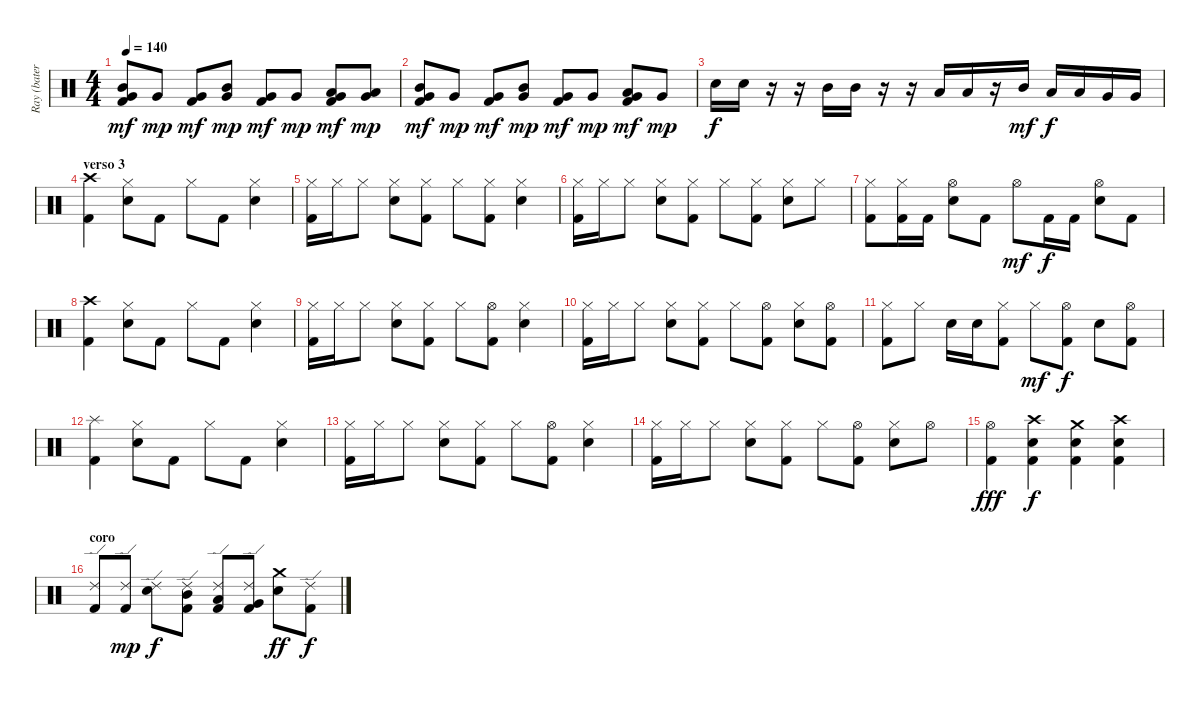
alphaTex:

\track ("Ray (batería)" "Ray (bater") {instrument percussion}
\staff {score}
\articulation defaults
\ts (4 4)
\tempo 140
\clef neutral
\ks c
("Mid Tom (hit)" "Very Low Tom (hit)" "Kick (hit) 2").8{dy mf} "Very Low Tom (hit)".8{dy mp} ("Very Low Tom (hit)" "Kick (hit) 2").8{dy mf} ("Mid Tom (hit)" "Very Low Tom (hit)").8{dy mp} ("Very Low Tom (hit)" "Kick (hit) 2").8{dy mf} "Very Low Tom (hit)".8{dy mp} ("Low Tom (hit)" "Very Low Tom (hit)" "Kick (hit) 2").8{dy mf} ("Low Tom (hit)" "Very Low Tom (hit)").8{dy mp} |
("Mid Tom (hit)" "Very Low Tom (hit)" "Kick (hit) 2").8{dy mf} "Very Low Tom (hit)".8{dy mp} ("Very Low Tom (hit)" "Kick (hit) 2").8{dy mf} ("Mid Tom (hit)" "Very Low Tom (hit)").8{dy mp} ("Very Low Tom (hit)" "Kick (hit) 2").8{dy mf} "Very Low Tom (hit)".8{dy mp} ("Low Tom (hit)" "Very Low Tom (hit)" "Kick (hit) 2").8{dy mf} "Very Low Tom (hit)".8{dy mp} |
"Snare (hit) 2".16{dy f} "Snare (hit) 2".16 r.16 r.16 "Mid Tom (hit)".16 "Mid Tom (hit)".16 r.16 r.16 "Low Tom (hit)".16 "Low Tom (hit)".16 r.16 "Mid Tom (hit)".16{dy mf} "Low Tom (hit)".16{dy f} "Low Tom (hit)".16 "Very Low Tom (hit)".16 "Very Low Tom (hit)".16 |
\section ("" "verso 3")
("Crash high (hit)" "Kick (hit) 2").4{volume 15} ("Hi-Hat (closed)" "Snare (hit) 2").8 "Kick (hit) 2".8 "Hi-Hat (closed)".8 "Kick (hit) 2".8 ("Hi-Hat (closed)" "Snare (hit) 2").4 |
("Hi-Hat (closed)" "Kick (hit) 2").16 "Hi-Hat (closed)".16 "Hi-Hat (closed)".8 ("Hi-Hat (closed)" "Snare (hit) 2").8 ("Hi-Hat (closed)" "Kick (hit) 2").8 "Hi-Hat (closed)".8 ("Hi-Hat (closed)" "Kick (hit) 2").8 ("Hi-Hat (closed)" "Snare (hit) 2").4 |
("Hi-Hat (closed)" "Kick (hit) 2").16 "Hi-Hat (closed)".16 "Hi-Hat (closed)".8 ("Hi-Hat (closed)" "Snare (hit) 2").8 ("Hi-Hat (closed)" "Kick (hit) 2").8 "Hi-Hat (closed)".8 ("Hi-Hat (closed)" "Kick (hit) 2").8 ("Hi-Hat (closed)" "Snare (hit) 2").8 "Hi-Hat (closed)".8 |
("Hi-Hat (closed)" "Kick (hit) 2").8 ("Hi-Hat (closed)" "Kick (hit) 2").16 "Kick (hit) 2".16 ("Hi-Hat (open)" "Snare (hit) 2").8 "Kick (hit) 2".8 "Hi-Hat (open)".8{dy mf} "Kick (hit) 2".16{dy f} "Kick (hit) 2".16 ("Hi-Hat (open)" "Snare (hit) 2").8 "Kick (hit) 2".8 |
("Crash high (hit)" "Kick (hit) 2").4 ("Hi-Hat (closed)" "Snare (hit) 2").8 "Kick (hit) 2".8 "Hi-Hat (closed)".8 "Kick (hit) 2".8 ("Hi-Hat (closed)" "Snare (hit) 2").4 |
("Hi-Hat (closed)" "Kick (hit) 2").16 "Hi-Hat (closed)".16 "Hi-Hat (closed)".8 ("Hi-Hat (closed)" "Snare (hit) 2").8 ("Hi-Hat (closed)" "Kick (hit) 2").8 "Hi-Hat (closed)".8 ("Hi-Hat (open)" "Kick (hit) 2").8 ("Hi-Hat (closed)" "Snare (hit) 2").4 |
("Hi-Hat (closed)" "Kick (hit) 2").16 "Hi-Hat (closed)".16 "Hi-Hat (closed)".8 ("Hi-Hat (closed)" "Snare (hit) 2").8 ("Hi-Hat (closed)" "Kick (hit) 2").8 "Hi-Hat (closed)".8 ("Hi-Hat (open)" "Kick (hit) 2").8 ("Hi-Hat (closed)" "Snare (hit) 2").8 ("Hi-Hat (open)" "Kick (hit) 2").8 |
("Hi-Hat (closed)" "Kick (hit) 2").8 "Hi-Hat (closed)".8 "Snare (hit) 2".16 "Snare (hit) 2".16 ("Hi-Hat (closed)" "Kick (hit) 2").8 "Hi-Hat (closed)".8{dy mf} ("Hi-Hat (open)" "Kick (hit) 2").8{dy f} "Snare (hit) 2".8 ("Hi-Hat (open)" "Kick (hit) 2").8 |
("Splash (hit)" "Kick (hit) 2").4 ("Hi-Hat (closed)" "Snare (hit) 2").8 "Kick (hit) 2".8 "Hi-Hat (closed)".8 "Kick (hit) 2".8 ("Hi-Hat (closed)" "Snare (hit) 2").4 |
("Hi-Hat (closed)" "Kick (hit) 2").16 "Hi-Hat (closed)".16 "Hi-Hat (closed)".8 ("Hi-Hat (closed)" "Snare (hit) 2").8 ("Hi-Hat (closed)" "Kick (hit) 2").8 "Hi-Hat (closed)".8 ("Hi-Hat (open)" "Kick (hit) 2").8 ("Hi-Hat (closed)" "Snare (hit) 2").4 |
("Hi-Hat (closed)" "Kick (hit) 2").16 "Hi-Hat (closed)".16 "Hi-Hat (closed)".8 ("Hi-Hat (closed)" "Snare (hit) 2").8 ("Hi-Hat (closed)" "Kick (hit) 2").8 "Hi-Hat (closed)".8 ("Hi-Hat (open)" "Kick (hit) 2").8 ("Hi-Hat (closed)" "Snare (hit) 2").8 "Hi-Hat (open)".8 |
("Hi-Hat (open)" "Kick (hit) 2").4{dy fff} ("Crash high (hit)" "Snare (hit) 2" "Kick (hit) 2").4{dy f} ("Crash medium (hit)" "Snare (hit) 2" "Kick (hit) 2").4 ("Crash high (hit)" "Snare (hit) 2" "Kick (hit) 2").4 |
\section ("" "coro")
("Ride (edge) 2" "Kick (hit) 2").8 ("Ride (edge) 2" "Kick (hit) 2").8{dy mp} ("Ride (edge) 2" "Snare (hit) 2").8{dy f} ("Ride (edge) 2" "Mid Tom (hit)" "Kick (hit) 2").8 ("Ride (edge) 2" "Low Tom (hit)" "Kick (hit) 2").8 ("Ride (edge) 2" "Very Low Tom (hit)" "Kick (hit) 2").8 ("Crash medium (hit)" "Snare (hit) 2").8{dy ff} ("Ride (edge) 2" "Kick (hit) 2").8{dy f}
